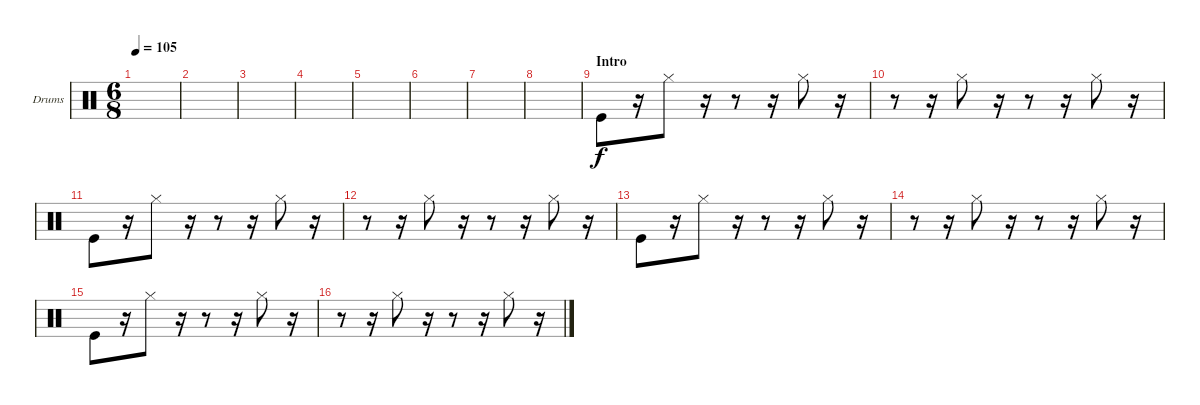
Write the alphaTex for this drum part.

\defaultSystemsLayout 4
\bracketExtendMode nobrackets
\firstSystemTrackNameOrientation horizontal
\otherSystemsTrackNameOrientation horizontal
\track ("Drumkit" "Drums") {instrument percussion}
\staff {score}
\articulation defaults
\ts (6 8)
\tempo 105
\clef neutral
\ks c
|
|
|
|
|
|
|
|
\section ("" "Intro")
"Kick (hit)".8 r.16 "Hi-Hat (closed)".8 r.16 r.8 r.16 "Hi-Hat (closed)".8 r.16 |
r.8 r.16 "Hi-Hat (closed)".8 r.16 r.8 r.16 "Hi-Hat (closed)".8 r.16 |
"Kick (hit)".8 r.16 "Hi-Hat (closed)".8 r.16 r.8 r.16 "Hi-Hat (closed)".8 r.16 |
r.8 r.16 "Hi-Hat (closed)".8 r.16 r.8 r.16 "Hi-Hat (closed)".8 r.16 |
"Kick (hit)".8 r.16 "Hi-Hat (closed)".8 r.16 r.8 r.16 "Hi-Hat (closed)".8 r.16 |
r.8 r.16 "Hi-Hat (closed)".8 r.16 r.8 r.16 "Hi-Hat (closed)".8 r.16 |
"Kick (hit)".8 r.16 "Hi-Hat (closed)".8 r.16 r.8 r.16 "Hi-Hat (closed)".8 r.16 |
r.8 r.16 "Hi-Hat (closed)".8 r.16 r.8 r.16 "Hi-Hat (closed)".8 r.16
